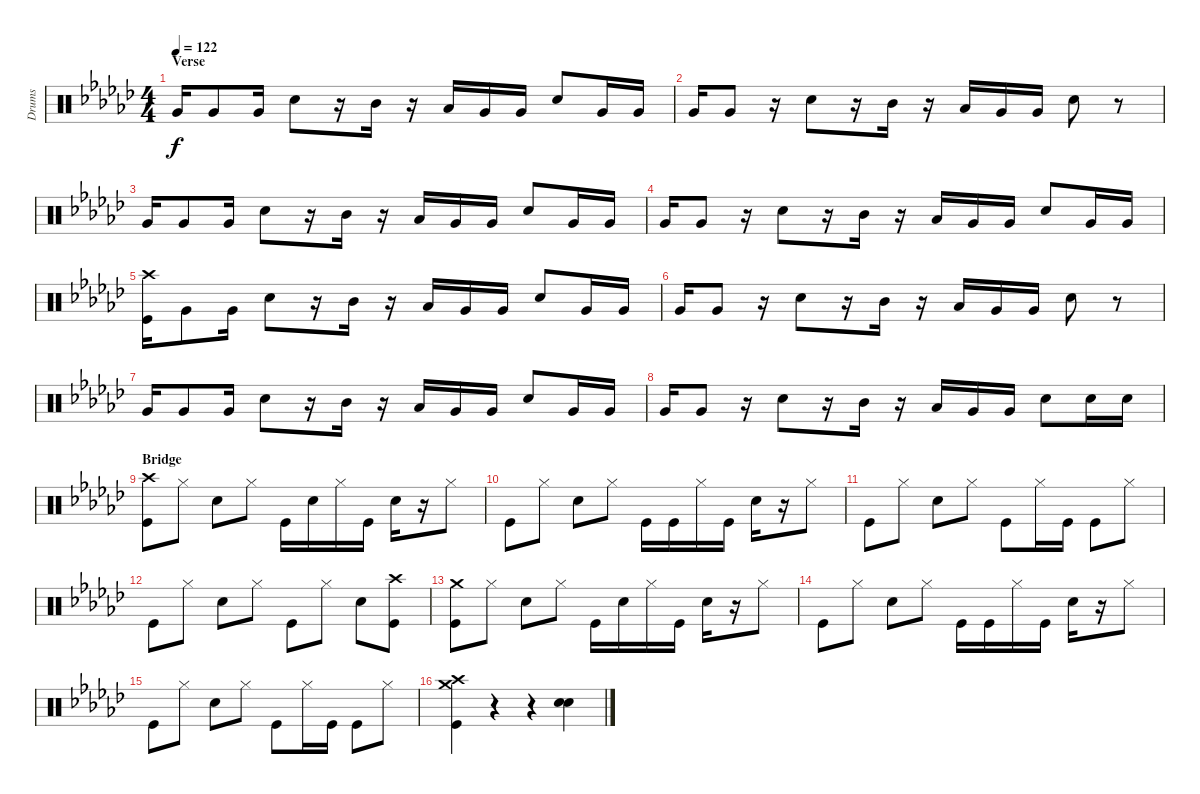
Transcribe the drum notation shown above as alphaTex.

\track ("Drums" "Drums") {instrument percussion}
\staff {score}
\articulation defaults
\ts (4 4)
\section ("" "Verse")
\tempo 122
\clef neutral
\ks ebminor "Very Low Tom (hit)".16{dy f} "Very Low Tom (hit)".8 "Very Low Tom (hit)".16 "Snare (hit) 2".8
r.16 "Mid Tom (hit)".16 r.16 "Low Tom (hit)".16 "Very Low Tom (hit)".16 "Very Low Tom (hit)".16 "Snare (hit) 2".8 "Very Low Tom (hit)".16 "Very Low Tom (hit)".16 |
"Very Low Tom (hit)".16 "Very Low Tom (hit)".8 r.16 "Snare (hit) 2".8 r.16 "Mid Tom (hit)".16 r.16 "Low Tom (hit)".16 "Very Low Tom (hit)".16 "Very Low Tom (hit)".16 "Snare (hit) 2".8 r.8 |
"Very Low Tom (hit)".16 "Very Low Tom (hit)".8 "Very Low Tom (hit)".16 "Snare (hit) 2".8 r.16 "Mid Tom (hit)".16 r.16 "Low Tom (hit)".16 "Very Low Tom (hit)".16 "Very Low Tom (hit)".16 "Snare (hit) 2".8 "Very Low Tom (hit)".16 "Very Low Tom (hit)".16 |
"Very Low Tom (hit)".16 "Very Low Tom (hit)".8 r.16 "Snare (hit) 2".8 r.16 "Mid Tom (hit)".16 r.16 "Low Tom (hit)".16 "Very Low Tom (hit)".16 "Very Low Tom (hit)".16 "Snare (hit) 2".8 "Very Low Tom (hit)".16 "Very Low Tom (hit)".16 |
("Crash high (hit)" "Kick (hit)").16 "Very Low Tom (hit)".8 "Very Low Tom (hit)".16 "Snare (hit) 2".8 r.16 "Mid Tom (hit)".16 r.16 "Low Tom (hit)".16 "Very Low Tom (hit)".16 "Very Low Tom (hit)".16 "Snare (hit) 2".8 "Very Low Tom (hit)".16 "Very Low Tom (hit)".16 |
"Very Low Tom (hit)".16 "Very Low Tom (hit)".8 r.16 "Snare (hit) 2".8 r.16 "Mid Tom (hit)".16 r.16 "Low Tom (hit)".16 "Very Low Tom (hit)".16 "Very Low Tom (hit)".16 "Snare (hit) 2".8 r.8 |
"Very Low Tom (hit)".16 "Very Low Tom (hit)".8 "Very Low Tom (hit)".16 "Snare (hit) 2".8 r.16 "Mid Tom (hit)".16 r.16 "Low Tom (hit)".16 "Very Low Tom (hit)".16 "Very Low Tom (hit)".16 "Snare (hit) 2".8 "Very Low Tom (hit)".16 "Very Low Tom (hit)".16 |
"Very Low Tom (hit)".16 "Very Low Tom (hit)".8 r.16 "Snare (hit) 2".8 r.16 "Mid Tom (hit)".16 r.16 "Low Tom (hit)".16 "Very Low Tom (hit)".16 "Very Low Tom (hit)".16 "Snare (hit) 2".8 "Snare (hit) 2".16 "Snare (hit) 2".16 |
\section ("" "Bridge")
("Crash high (hit)" "Kick (hit)").8 "Hi-Hat (closed)".8 "Snare (hit) 2".8 "Hi-Hat (closed)".8 "Kick (hit)".16 "Snare (hit) 2".16 "Hi-Hat (closed)".16 "Kick (hit)".16 "Snare (hit) 2".16 r.16 "Hi-Hat (closed)".8 |
"Kick (hit)".8 "Hi-Hat (closed)".8 "Snare (hit) 2".8 "Hi-Hat (closed)".8 "Kick (hit)".16 "Kick (hit)".16 "Hi-Hat (closed)".16 "Kick (hit)".16 "Snare (hit) 2".16 r.16 "Hi-Hat (closed)".8 |
"Kick (hit)".8 "Hi-Hat (closed)".8 "Snare (hit) 2".8 "Hi-Hat (closed)".8 "Kick (hit)".8 "Hi-Hat (closed)".16 "Kick (hit)".16 "Kick (hit)".8 "Hi-Hat (closed)".8 |
"Kick (hit)".8 "Hi-Hat (closed)".8 "Snare (hit) 2".8 "Hi-Hat (closed)".8 "Kick (hit)".8 "Hi-Hat (closed)".8 "Snare (hit) 2".8 ("Crash high (hit)" "Kick (hit)").8 |
("Crash medium (hit)" "Kick (hit)").8 "Hi-Hat (closed)".8 "Snare (hit) 2".8 "Hi-Hat (closed)".8 "Kick (hit)".16 "Snare (hit) 2".16 "Hi-Hat (closed)".16 "Kick (hit)".16 "Snare (hit) 2".16 r.16 "Hi-Hat (closed)".8 |
"Kick (hit)".8 "Hi-Hat (closed)".8 "Snare (hit) 2".8 "Hi-Hat (closed)".8 "Kick (hit)".16 "Kick (hit)".16 "Hi-Hat (closed)".16 "Kick (hit)".16 "Snare (hit) 2".16 r.16 "Hi-Hat (closed)".8 |
"Kick (hit)".8 "Hi-Hat (closed)".8 "Snare (hit) 2".8 "Hi-Hat (closed)".8 "Kick (hit)".8 "Hi-Hat (closed)".16 "Kick (hit)".16 "Kick (hit)".8 "Hi-Hat (closed)".8 |
("Crash medium (hit)" "Crash high (hit)" "Kick (hit)").4 r.4 r.4 ("Snare (hit) 2" "Snare (hit) 2").4
